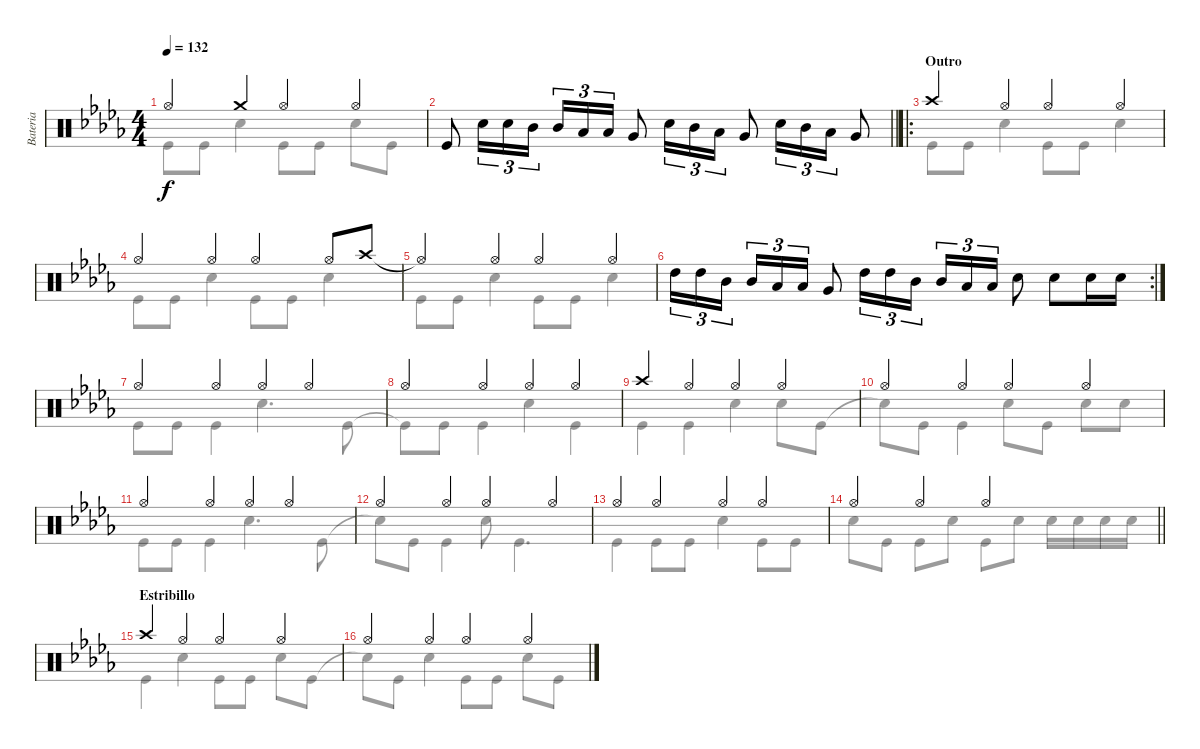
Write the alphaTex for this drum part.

\track ("Bateria" "Bateria") {instrument percussion}
\staff {score}
\articulation defaults
\voice
\ts (4 4)
\tempo 132
\clef neutral
\ks db "Hi-Hat (open)".4{dy f} "Crash medium (hit)".4 "Hi-Hat (open)".4 "Hi-Hat (open)".4
|
\barLineRight lightlight "Kick (hit)".8 "Snare (hit) 2".16{tu (3 2)} "Snare (hit) 2".16{tu (3 2)} "Mid Tom (hit)".16{tu (3 2)} "Mid Tom (hit)".16{tu (3 2)} "Low Tom (hit)".16{tu (3 2)} "Low Tom (hit)".16{tu (3 2)} "Very Low Tom (hit)".8 "Snare (hit) 2".16{tu (3 2)} "Mid Tom (hit)".16{tu (3 2)} "Low Tom (hit)".16{tu (3 2)} "Very Low Tom (hit)".8 "Snare (hit) 2".16{tu (3 2)} "Mid Tom (hit)".16{tu (3 2)} "Low Tom (hit)".16{tu (3 2)} "Very Low Tom (hit)".8
|
\ro
\section ("" "Outro")
"Crash high (hit)".4 "Hi-Hat (open)".4 "Hi-Hat (open)".4 "Hi-Hat (open)".4 |
"Hi-Hat (open)".4 "Hi-Hat (open)".4 "Hi-Hat (open)".4 "Hi-Hat (open)".8 "Crash high (hit)".8 |
"Hi-Hat (open)"{t}.4 "Hi-Hat (open)".4 "Hi-Hat (open)".4 "Hi-Hat (open)".4 |
\rc 2 "High Tom (hit)".16{tu (3 2)} "High Tom (hit)".16{tu (3 2)} "Mid Tom (hit)".16{tu (3 2) beam splitsecondary} "Mid Tom (hit)".16{tu (3 2)} "Low Tom (hit)".16{tu (3 2)} "Low Tom (hit)".16{tu (3 2)} "Very Low Tom (hit)".8 "High Tom (hit)".16{tu (3 2)} "High Tom (hit)".16{tu (3 2)} "Mid Tom (hit)".16{tu (3 2)} "Mid Tom (hit)".16{tu (3 2)} "Low Tom (hit)".16{tu (3 2)} "Low Tom (hit)".16{tu (3 2)} "Snare (hit) 2".8 "Snare (hit) 2".8 "Snare (hit) 2".16 "Snare (hit) 2".16
|
"Hi-Hat (open)".4 "Hi-Hat (open)".4 "Hi-Hat (open)".4 "Hi-Hat (open)".4 |
"Hi-Hat (open)".4 "Hi-Hat (open)".4 "Hi-Hat (open)".4 "Hi-Hat (open)".4 |
"Crash high (hit)".4 "Hi-Hat (open)".4 "Hi-Hat (open)".4 "Hi-Hat (open)".4 |
"Hi-Hat (open)".4 "Hi-Hat (open)".4 "Hi-Hat (open)".4 "Hi-Hat (open)".4 |
"Hi-Hat (open)".4 "Hi-Hat (open)".4 "Hi-Hat (open)".4 "Hi-Hat (open)".4 |
"Hi-Hat (open)".4 "Hi-Hat (open)".4 "Hi-Hat (open)".4 "Hi-Hat (open)".4 |
"Hi-Hat (open)".4 "Hi-Hat (open)".4 "Hi-Hat (open)".4 "Hi-Hat (open)".4 |
\barLineRight lightlight "Hi-Hat (open)".4 "Hi-Hat (open)".4 "Hi-Hat (open)".2
|
\section ("" "Estribillo")
"Crash high (hit)".4 "Hi-Hat (open)".4 "Hi-Hat (open)".4 "Hi-Hat (open)".4 |
"Hi-Hat (open)".4 "Hi-Hat (open)".4 "Hi-Hat (open)".4 "Hi-Hat (open)".4
\voice
\clef neutral
\ottava regular
\simile none
\ks db "Kick (hit)".8{dy f} "Kick (hit)".8 "Snare (hit) 2".4 "Kick (hit)".8 "Kick (hit)".8 "Snare (hit) 2".8 "Kick (hit)".8
|
\barLineRight lightlight
|
"Kick (hit)".8 "Kick (hit)".8 "Snare (hit) 2".4 "Kick (hit)".8 "Kick (hit)".8 "Snare (hit) 2".4 |
"Kick (hit)".8 "Kick (hit)".8 "Snare (hit) 2".4 "Kick (hit)".8 "Kick (hit)".8 "Snare (hit) 2".4 |
"Kick (hit)".8 "Kick (hit)".8 "Snare (hit) 2".4 "Kick (hit)".8 "Kick (hit)".8 "Snare (hit) 2".4 |
|
"Kick (hit)".8 "Kick (hit)".8 "Kick (hit)".4 "Snare (hit) 2".4{d} "Kick (hit)".8 |
"Kick (hit)"{t}.8 "Kick (hit)".8 "Kick (hit)".4 "Snare (hit) 2".4 "Kick (hit)".4 |
"Kick (hit)".4 "Kick (hit)".4 "Snare (hit) 2".4 "Snare (hit) 2".8 "Kick (hit)".8 |
"Snare (hit)"{t}.8 "Kick (hit)".8 "Kick (hit)".4 "Snare (hit) 2".8 "Kick (hit)".8 "Snare (hit) 2".8 "Snare (hit) 2".8 |
"Kick (hit)".8 "Kick (hit)".8 "Kick (hit)".4 "Snare (hit) 2".4{d} "Kick (hit)".8 |
"Snare (hit)"{t}.8 "Kick (hit)".8 "Kick (hit)".4 "Snare (hit) 2".8 "Kick (hit)".4{d} |
"Kick (hit)".4 "Kick (hit)".8 "Kick (hit)".8 "Snare (hit) 2".4 "Kick (hit)".8 "Kick (hit)".8 |
\barLineRight lightlight "Snare (hit) 2".8 "Kick (hit)".8 "Kick (hit)".8 "Snare (hit) 2".8 "Kick (hit)".8 "Snare (hit) 2".8 "Snare (hit) 2".16 "Snare (hit) 2".16 "Snare (hit) 2".16 "Snare (hit) 2".16
|
"Kick (hit)".4 "Snare (hit) 2".4 "Kick (hit)".8 "Kick (hit)".8 "Snare (hit) 2".8 "Kick (hit)".8 |
"Snare (hit)"{t}.8 "Kick (hit)".8 "Snare (hit) 2".4 "Kick (hit)".8 "Kick (hit)".8 "Snare (hit) 2".8 "Kick (hit)".8
